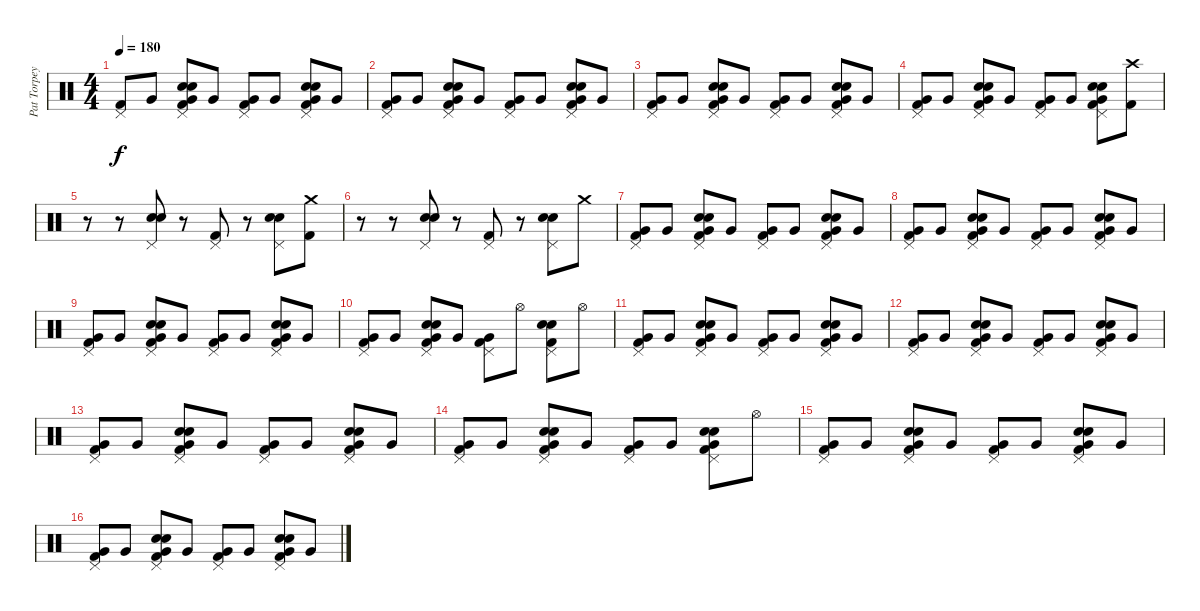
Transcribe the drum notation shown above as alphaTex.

\track ("Pat Torpey" "Pat Torpey") {instrument percussion}
\staff {score}
\articulation defaults
\ts (4 4)
\tempo 180
\clef neutral
\ks c
("Pedal Hi-Hat (hit)" "Kick (hit) 2").8{dy f} "Very Low Tom (hit)".8 ("Pedal Hi-Hat (hit)" "Very Low Tom (hit)" "Snare (hit) 2" "Electric Snare (hit)" "Kick (hit) 2").8 "Very Low Tom (hit)".8 ("Pedal Hi-Hat (hit)" "Very Low Tom (hit)" "Kick (hit) 2").8 "Very Low Tom (hit)".8 ("Pedal Hi-Hat (hit)" "Very Low Tom (hit)" "Snare (hit) 2" "Electric Snare (hit)" "Kick (hit) 2").8 "Very Low Tom (hit)".8 |
("Pedal Hi-Hat (hit)" "Very Low Tom (hit)" "Kick (hit) 2").8 "Very Low Tom (hit)".8 ("Pedal Hi-Hat (hit)" "Very Low Tom (hit)" "Snare (hit) 2" "Electric Snare (hit)" "Kick (hit) 2").8 "Very Low Tom (hit)".8 ("Pedal Hi-Hat (hit)" "Very Low Tom (hit)" "Kick (hit) 2").8 "Very Low Tom (hit)".8 ("Pedal Hi-Hat (hit)" "Very Low Tom (hit)" "Snare (hit) 2" "Electric Snare (hit)" "Kick (hit) 2").8 "Very Low Tom (hit)".8 |
("Pedal Hi-Hat (hit)" "Very Low Tom (hit)" "Kick (hit) 2").8 "Very Low Tom (hit)".8 ("Pedal Hi-Hat (hit)" "Very Low Tom (hit)" "Snare (hit) 2" "Electric Snare (hit)" "Kick (hit) 2").8 "Very Low Tom (hit)".8 ("Pedal Hi-Hat (hit)" "Very Low Tom (hit)" "Kick (hit) 2").8 "Very Low Tom (hit)".8 ("Pedal Hi-Hat (hit)" "Very Low Tom (hit)" "Snare (hit) 2" "Electric Snare (hit)" "Kick (hit) 2").8 "Very Low Tom (hit)".8 |
("Pedal Hi-Hat (hit)" "Very Low Tom (hit)" "Kick (hit) 2").8 "Very Low Tom (hit)".8 ("Pedal Hi-Hat (hit)" "Very Low Tom (hit)" "Snare (hit) 2" "Electric Snare (hit)" "Kick (hit) 2").8 "Very Low Tom (hit)".8 ("Pedal Hi-Hat (hit)" "Very Low Tom (hit)" "Kick (hit) 2").8 "Very Low Tom (hit)".8 ("Pedal Hi-Hat (hit)" "Very Low Tom (hit)" "Snare (hit) 2" "Electric Snare (hit)" "Kick (hit) 2").8 ("Crash high (hit)" "Kick (hit) 2").8 |
r.8 r.8 ("Pedal Hi-Hat (hit)" "Snare (hit) 2" "Electric Snare (hit)").8 r.8 ("Pedal Hi-Hat (hit)" "Kick (hit) 2").8 r.8 ("Pedal Hi-Hat (hit)" "Snare (hit) 2" "Electric Snare (hit)").8 ("Crash medium (hit)" "Kick (hit) 2").8 |
r.8 r.8 ("Pedal Hi-Hat (hit)" "Snare (hit) 2" "Electric Snare (hit)").8 r.8 ("Pedal Hi-Hat (hit)" "Kick (hit) 2").8 r.8 ("Pedal Hi-Hat (hit)" "Snare (hit) 2" "Electric Snare (hit)").8 "Crash medium (hit)".8 |
("Pedal Hi-Hat (hit)" "Very Low Tom (hit)" "Kick (hit) 2").8 "Very Low Tom (hit)".8 ("Pedal Hi-Hat (hit)" "Very Low Tom (hit)" "Snare (hit) 2" "Electric Snare (hit)" "Kick (hit) 2").8 "Very Low Tom (hit)".8 ("Pedal Hi-Hat (hit)" "Very Low Tom (hit)" "Kick (hit) 2").8 "Very Low Tom (hit)".8 ("Pedal Hi-Hat (hit)" "Very Low Tom (hit)" "Snare (hit) 2" "Electric Snare (hit)" "Kick (hit) 2").8 "Very Low Tom (hit)".8 |
("Pedal Hi-Hat (hit)" "Very Low Tom (hit)" "Kick (hit) 2").8 "Very Low Tom (hit)".8 ("Pedal Hi-Hat (hit)" "Very Low Tom (hit)" "Snare (hit) 2" "Electric Snare (hit)" "Kick (hit) 2").8 "Very Low Tom (hit)".8 ("Pedal Hi-Hat (hit)" "Very Low Tom (hit)" "Kick (hit) 2").8 "Very Low Tom (hit)".8 ("Pedal Hi-Hat (hit)" "Very Low Tom (hit)" "Snare (hit) 2" "Electric Snare (hit)" "Kick (hit) 2").8 "Very Low Tom (hit)".8 |
("Pedal Hi-Hat (hit)" "Very Low Tom (hit)" "Kick (hit) 2").8 "Very Low Tom (hit)".8 ("Pedal Hi-Hat (hit)" "Very Low Tom (hit)" "Snare (hit) 2" "Electric Snare (hit)" "Kick (hit) 2").8 "Very Low Tom (hit)".8 ("Pedal Hi-Hat (hit)" "Very Low Tom (hit)" "Kick (hit) 2").8 "Very Low Tom (hit)".8 ("Pedal Hi-Hat (hit)" "Very Low Tom (hit)" "Snare (hit) 2" "Electric Snare (hit)" "Kick (hit) 2").8 "Very Low Tom (hit)".8 |
("Pedal Hi-Hat (hit)" "Very Low Tom (hit)" "Kick (hit) 2").8 "Very Low Tom (hit)".8 ("Pedal Hi-Hat (hit)" "Very Low Tom (hit)" "Snare (hit) 2" "Electric Snare (hit)" "Kick (hit) 2").8 "Very Low Tom (hit)".8 ("Pedal Hi-Hat (hit)" "Very Low Tom (hit)" "Kick (hit) 2").8 "Hi-Hat (open)".8 ("Pedal Hi-Hat (hit)" "Snare (hit) 2" "Electric Snare (hit)" "Kick (hit) 2").8 "Hi-Hat (open)".8 |
("Pedal Hi-Hat (hit)" "Very Low Tom (hit)" "Kick (hit) 2").8 "Very Low Tom (hit)".8 ("Pedal Hi-Hat (hit)" "Very Low Tom (hit)" "Snare (hit) 2" "Electric Snare (hit)" "Kick (hit) 2").8 "Very Low Tom (hit)".8 ("Pedal Hi-Hat (hit)" "Very Low Tom (hit)" "Kick (hit) 2").8 "Very Low Tom (hit)".8 ("Pedal Hi-Hat (hit)" "Very Low Tom (hit)" "Snare (hit) 2" "Electric Snare (hit)" "Kick (hit) 2").8 "Very Low Tom (hit)".8 |
("Pedal Hi-Hat (hit)" "Very Low Tom (hit)" "Kick (hit) 2").8 "Very Low Tom (hit)".8 ("Pedal Hi-Hat (hit)" "Very Low Tom (hit)" "Snare (hit) 2" "Electric Snare (hit)" "Kick (hit) 2").8 "Very Low Tom (hit)".8 ("Pedal Hi-Hat (hit)" "Very Low Tom (hit)" "Kick (hit) 2").8 "Very Low Tom (hit)".8 ("Pedal Hi-Hat (hit)" "Very Low Tom (hit)" "Snare (hit) 2" "Electric Snare (hit)" "Kick (hit) 2").8 "Very Low Tom (hit)".8 |
("Pedal Hi-Hat (hit)" "Very Low Tom (hit)" "Kick (hit) 2").8 "Very Low Tom (hit)".8 ("Pedal Hi-Hat (hit)" "Very Low Tom (hit)" "Snare (hit) 2" "Electric Snare (hit)" "Kick (hit) 2").8 "Very Low Tom (hit)".8 ("Pedal Hi-Hat (hit)" "Very Low Tom (hit)" "Kick (hit) 2").8 "Very Low Tom (hit)".8 ("Pedal Hi-Hat (hit)" "Very Low Tom (hit)" "Snare (hit) 2" "Electric Snare (hit)" "Kick (hit) 2").8 "Very Low Tom (hit)".8 |
("Pedal Hi-Hat (hit)" "Very Low Tom (hit)" "Kick (hit) 2").8 "Very Low Tom (hit)".8 ("Pedal Hi-Hat (hit)" "Very Low Tom (hit)" "Snare (hit) 2" "Electric Snare (hit)" "Kick (hit) 2").8 "Very Low Tom (hit)".8 ("Pedal Hi-Hat (hit)" "Very Low Tom (hit)" "Kick (hit) 2").8 "Very Low Tom (hit)".8 ("Pedal Hi-Hat (hit)" "Very Low Tom (hit)" "Snare (hit) 2" "Electric Snare (hit)" "Kick (hit) 2").8 "Hi-Hat (open)".8 |
("Pedal Hi-Hat (hit)" "Very Low Tom (hit)" "Kick (hit) 2").8 "Very Low Tom (hit)".8 ("Pedal Hi-Hat (hit)" "Very Low Tom (hit)" "Snare (hit) 2" "Electric Snare (hit)" "Kick (hit) 2").8 "Very Low Tom (hit)".8 ("Pedal Hi-Hat (hit)" "Very Low Tom (hit)" "Kick (hit) 2").8 "Very Low Tom (hit)".8 ("Pedal Hi-Hat (hit)" "Very Low Tom (hit)" "Snare (hit) 2" "Electric Snare (hit)" "Kick (hit) 2").8 "Very Low Tom (hit)".8 |
("Pedal Hi-Hat (hit)" "Very Low Tom (hit)" "Kick (hit) 2").8 "Very Low Tom (hit)".8 ("Pedal Hi-Hat (hit)" "Very Low Tom (hit)" "Snare (hit) 2" "Electric Snare (hit)" "Kick (hit) 2").8 "Very Low Tom (hit)".8 ("Pedal Hi-Hat (hit)" "Very Low Tom (hit)" "Kick (hit) 2").8 "Very Low Tom (hit)".8 ("Pedal Hi-Hat (hit)" "Very Low Tom (hit)" "Snare (hit) 2" "Electric Snare (hit)" "Kick (hit) 2").8 "Very Low Tom (hit)".8
